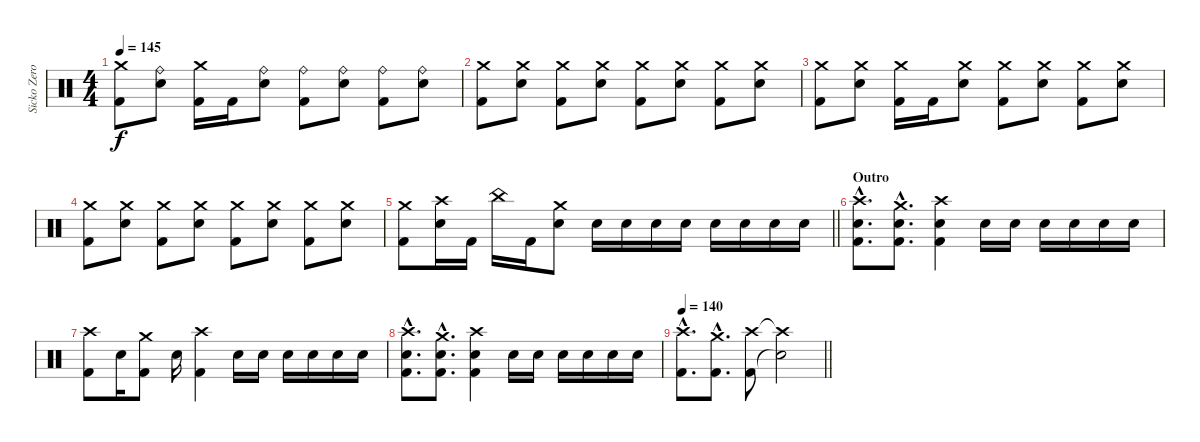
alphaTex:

\track ("Sicko Zero - Drums" "Sicko Zero") {instrument percussion}
\staff {score}
\articulation defaults
\ts (4 4)
\tempo 145
\clef neutral
\ks c
("Crash medium (hit)" "Kick (hit) 2").8{dy f} ("Ride (bell)" "Electric Snare (hit)").8 ("Crash medium (hit)" "Kick (hit) 2").16 "Kick (hit) 2".16 ("Ride (bell)" "Electric Snare (hit)").8 ("Ride (bell)" "Kick (hit) 2").8 ("Ride (bell)" "Electric Snare (hit)").8 ("Ride (bell)" "Kick (hit) 2").8 ("Ride (bell)" "Electric Snare (hit)").8 |
("Crash medium (hit)" "Kick (hit) 2").8 ("Crash medium (hit)" "Electric Snare (hit)").8 ("Crash medium (hit)" "Kick (hit) 2").8 ("Crash medium (hit)" "Electric Snare (hit)").8 ("Crash medium (hit)" "Kick (hit) 2").8 ("Crash medium (hit)" "Electric Snare (hit)").8 ("Crash medium (hit)" "Kick (hit) 2").8 ("Crash medium (hit)" "Electric Snare (hit)").8 |
("Crash medium (hit)" "Kick (hit) 2").8 ("Crash medium (hit)" "Electric Snare (hit)").8 ("Crash medium (hit)" "Kick (hit) 2").16 "Kick (hit) 2".16 ("Crash medium (hit)" "Electric Snare (hit)").8 ("Crash medium (hit)" "Kick (hit) 2").8 ("Crash medium (hit)" "Electric Snare (hit)").8 ("Crash medium (hit)" "Kick (hit) 2").8 ("Crash medium (hit)" "Electric Snare (hit)").8 |
("Crash medium (hit)" "Kick (hit) 2").8 ("Crash medium (hit)" "Electric Snare (hit)").8 ("Crash medium (hit)" "Kick (hit) 2").8 ("Crash medium (hit)" "Electric Snare (hit)").8 ("Crash medium (hit)" "Kick (hit) 2").8 ("Crash medium (hit)" "Electric Snare (hit)").8 ("Crash medium (hit)" "Kick (hit) 2").8 ("Crash medium (hit)" "Electric Snare (hit)").8 |
\barLineRight lightlight
("Crash medium (hit)" "Kick (hit) 2").8 ("Crash high (hit)" "Electric Snare (hit)").16 "Kick (hit) 2".16 "China (hit)".16 "Kick (hit) 2".16 ("Crash medium (hit)" "Electric Snare (hit)").8 "Electric Snare (hit)".16 "Electric Snare (hit)".16 "Electric Snare (hit)".16 "Electric Snare (hit)".16 "Electric Snare (hit)".16 "Electric Snare (hit)".16 "Electric Snare (hit)".16 "Electric Snare (hit)".16 |
\section ("" "Outro")
("Crash high (hit)"{hac} "Electric Snare (hit)"{hac} "Kick (hit) 2"{hac}).8{d} ("Crash medium (hit)"{hac} "Electric Snare (hit)"{hac} "Kick (hit) 2"{hac}).8{d} ("Crash high (hit)" "Electric Snare (hit)" "Kick (hit) 2").4 "Electric Snare (hit)".16 "Electric Snare (hit)".16 "Electric Snare (hit)".16 "Electric Snare (hit)".16 "Electric Snare (hit)".16 "Electric Snare (hit)".16 |
("Crash high (hit)" "Kick (hit) 2").8 "Electric Snare (hit)".16 ("Crash medium (hit)" "Kick (hit) 2").8 "Electric Snare (hit)".16 ("Crash high (hit)" "Kick (hit) 2").4 "Electric Snare (hit)".16 "Electric Snare (hit)".16 "Electric Snare (hit)".16 "Electric Snare (hit)".16 "Electric Snare (hit)".16 "Electric Snare (hit)".16 |
("Crash high (hit)"{hac} "Electric Snare (hit)"{hac} "Kick (hit) 2"{hac}).8{d} ("Crash medium (hit)"{hac} "Electric Snare (hit)"{hac} "Kick (hit) 2"{hac}).8{d} ("Crash high (hit)" "Electric Snare (hit)" "Kick (hit) 2").4 "Electric Snare (hit)".16 "Electric Snare (hit)".16 "Electric Snare (hit)".16 "Electric Snare (hit)".16 "Electric Snare (hit)".16 "Electric Snare (hit)".16 |
\tempo 140
\barLineRight lightlight
("Crash high (hit)"{hac} "Kick (hit) 2"{hac}).8{d} ("Crash medium (hit)"{hac} "Kick (hit) 2"{hac}).8{d} ("Crash high (hit)" "Kick (hit) 2").8 ("Crash high (hit)"{t} "Snare (hit)"{t}).2
